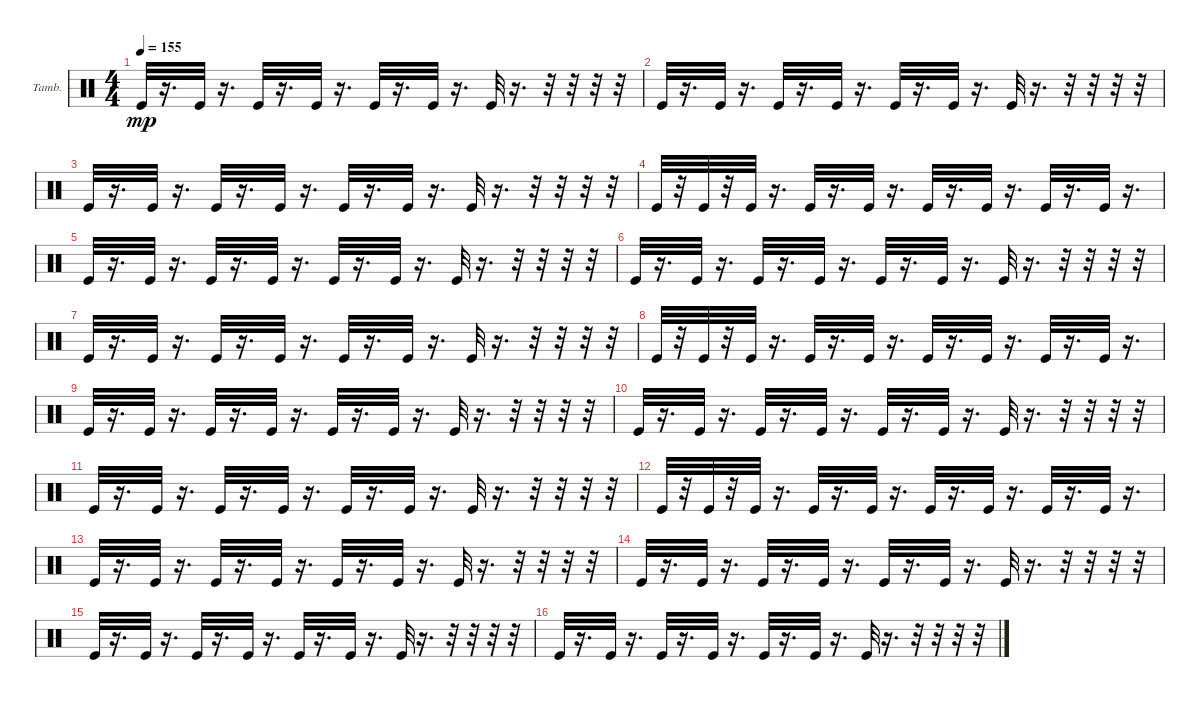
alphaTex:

\bracketExtendMode groupsimilarinstruments
\firstSystemTrackNameOrientation horizontal
\otherSystemsTrackNameOrientation horizontal
\track ("Е. Кулаков" "Tamb.") {instrument percussion}
\staff {score}
\articulation defaults
\ts (4 4)
\tempo 155
\clef neutral
\ks c "Kick (hit)".32{dy mp}
r.16{d} "Kick (hit)".32 r.16{d} "Kick (hit)".32 r.16{d} "Kick (hit)".32 r.16{d} "Kick (hit)".32 r.16{d} "Kick (hit)".32 r.16{d} "Kick (hit)".32 r.16{d} r.32 r.32 r.32 r.32 |
"Kick (hit)".32 r.16{d} "Kick (hit)".32 r.16{d} "Kick (hit)".32 r.16{d} "Kick (hit)".32 r.16{d} "Kick (hit)".32 r.16{d} "Kick (hit)".32 r.16{d} "Kick (hit)".32 r.16{d} r.32 r.32 r.32 r.32 |
"Kick (hit)".32 r.16{d} "Kick (hit)".32 r.16{d} "Kick (hit)".32 r.16{d} "Kick (hit)".32 r.16{d} "Kick (hit)".32 r.16{d} "Kick (hit)".32 r.16{d} "Kick (hit)".32 r.16{d} r.32 r.32 r.32 r.32 |
"Kick (hit)".32 r.32 "Kick (hit)".32 r.32 "Kick (hit)".32 r.16{d} "Kick (hit)".32 r.16{d} "Kick (hit)".32 r.16{d} "Kick (hit)".32 r.16{d} "Kick (hit)".32 r.16{d} "Kick (hit)".32 r.16{d} "Kick (hit)".32 r.16{d} |
"Kick (hit)".32 r.16{d} "Kick (hit)".32 r.16{d} "Kick (hit)".32 r.16{d} "Kick (hit)".32 r.16{d} "Kick (hit)".32 r.16{d} "Kick (hit)".32 r.16{d} "Kick (hit)".32 r.16{d} r.32 r.32 r.32 r.32 |
"Kick (hit)".32 r.16{d} "Kick (hit)".32 r.16{d} "Kick (hit)".32 r.16{d} "Kick (hit)".32 r.16{d} "Kick (hit)".32 r.16{d} "Kick (hit)".32 r.16{d} "Kick (hit)".32 r.16{d} r.32 r.32 r.32 r.32 |
"Kick (hit)".32 r.16{d} "Kick (hit)".32 r.16{d} "Kick (hit)".32 r.16{d} "Kick (hit)".32 r.16{d} "Kick (hit)".32 r.16{d} "Kick (hit)".32 r.16{d} "Kick (hit)".32 r.16{d} r.32 r.32 r.32 r.32 |
"Kick (hit)".32 r.32 "Kick (hit)".32 r.32 "Kick (hit)".32 r.16{d} "Kick (hit)".32 r.16{d} "Kick (hit)".32 r.16{d} "Kick (hit)".32 r.16{d} "Kick (hit)".32 r.16{d} "Kick (hit)".32 r.16{d} "Kick (hit)".32 r.16{d} |
"Kick (hit)".32 r.16{d} "Kick (hit)".32 r.16{d} "Kick (hit)".32 r.16{d} "Kick (hit)".32 r.16{d} "Kick (hit)".32 r.16{d} "Kick (hit)".32 r.16{d} "Kick (hit)".32 r.16{d} r.32 r.32 r.32 r.32 |
"Kick (hit)".32 r.16{d} "Kick (hit)".32 r.16{d} "Kick (hit)".32 r.16{d} "Kick (hit)".32 r.16{d} "Kick (hit)".32 r.16{d} "Kick (hit)".32 r.16{d} "Kick (hit)".32 r.16{d} r.32 r.32 r.32 r.32 |
"Kick (hit)".32 r.16{d} "Kick (hit)".32 r.16{d} "Kick (hit)".32 r.16{d} "Kick (hit)".32 r.16{d} "Kick (hit)".32 r.16{d} "Kick (hit)".32 r.16{d} "Kick (hit)".32 r.16{d} r.32 r.32 r.32 r.32 |
"Kick (hit)".32 r.32 "Kick (hit)".32 r.32 "Kick (hit)".32 r.16{d} "Kick (hit)".32 r.16{d} "Kick (hit)".32 r.16{d} "Kick (hit)".32 r.16{d} "Kick (hit)".32 r.16{d} "Kick (hit)".32 r.16{d} "Kick (hit)".32 r.16{d} |
"Kick (hit)".32 r.16{d} "Kick (hit)".32 r.16{d} "Kick (hit)".32 r.16{d} "Kick (hit)".32 r.16{d} "Kick (hit)".32 r.16{d} "Kick (hit)".32 r.16{d} "Kick (hit)".32 r.16{d} r.32 r.32 r.32 r.32 |
"Kick (hit)".32 r.16{d} "Kick (hit)".32 r.16{d} "Kick (hit)".32 r.16{d} "Kick (hit)".32 r.16{d} "Kick (hit)".32 r.16{d} "Kick (hit)".32 r.16{d} "Kick (hit)".32 r.16{d} r.32 r.32 r.32 r.32 |
"Kick (hit)".32 r.16{d} "Kick (hit)".32 r.16{d} "Kick (hit)".32 r.16{d} "Kick (hit)".32 r.16{d} "Kick (hit)".32 r.16{d} "Kick (hit)".32 r.16{d} "Kick (hit)".32 r.16{d} r.32 r.32 r.32 r.32 |
"Kick (hit)".32 r.16{d} "Kick (hit)".32 r.16{d} "Kick (hit)".32 r.16{d} "Kick (hit)".32 r.16{d} "Kick (hit)".32 r.16{d} "Kick (hit)".32 r.16{d} "Kick (hit)".32 r.16{d} r.32 r.32 r.32 r.32
